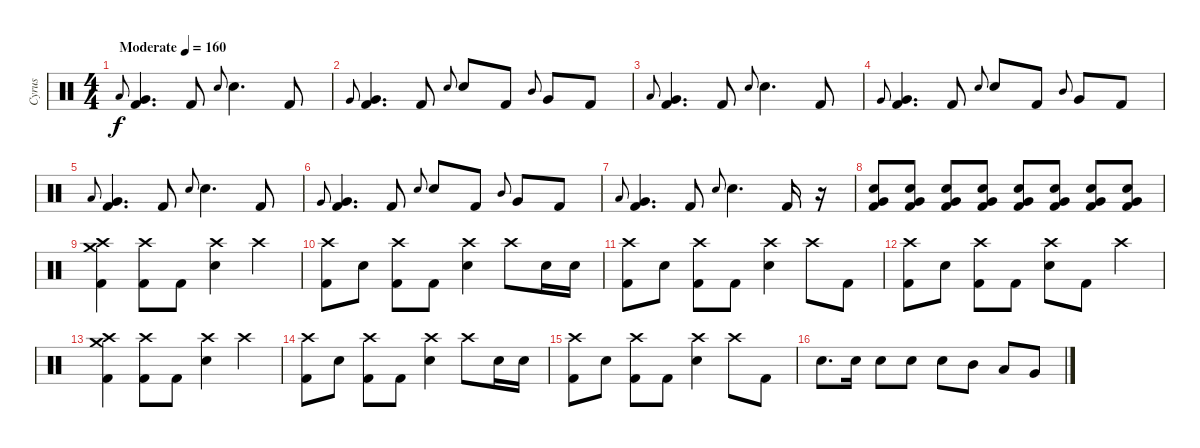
\track ("Cyrus" "Cyrus") {instrument percussion}
\staff {score}
\articulation defaults
\ts (4 4)
\tempo (160 "Moderate")
\clef neutral
\ks c "Low Tom (hit)".8{gr onbeat dy f}
("Very Low Tom (hit)" "Kick (hit) 2").4{d} "Kick (hit) 2".8 "Snare (hit) 2".8{gr onbeat} "Snare (hit) 2".4{d} "Kick (hit) 2".8 |
"Very Low Tom (hit)".8{gr onbeat} ("Very Low Tom (hit)" "Kick (hit) 2").4{d} "Kick (hit) 2".8 "Snare (hit) 2".8{gr onbeat} "Snare (hit) 2".8 "Kick (hit) 2".8 "Mid Tom (hit)".8{gr onbeat} "Very Low Tom (hit)".8 "Kick (hit) 2".8 |
"Low Tom (hit)".8{gr onbeat} ("Very Low Tom (hit)" "Kick (hit) 2").4{d} "Kick (hit) 2".8 "Snare (hit) 2".8{gr onbeat} "Snare (hit) 2".4{d} "Kick (hit) 2".8 |
"Very Low Tom (hit)".8{gr onbeat} ("Very Low Tom (hit)" "Kick (hit) 2").4{d} "Kick (hit) 2".8 "Snare (hit) 2".8{gr onbeat} "Snare (hit) 2".8 "Kick (hit) 2".8 "Mid Tom (hit)".8{gr onbeat} "Very Low Tom (hit)".8 "Kick (hit) 2".8 |
"Low Tom (hit)".8{gr onbeat} ("Very Low Tom (hit)" "Kick (hit) 2").4{d} "Kick (hit) 2".8 "Snare (hit) 2".8{gr onbeat} "Snare (hit) 2".4{d} "Kick (hit) 2".8 |
"Very Low Tom (hit)".8{gr onbeat} ("Very Low Tom (hit)" "Kick (hit) 2").4{d} "Kick (hit) 2".8 "Snare (hit) 2".8{gr onbeat} "Snare (hit) 2".8 "Kick (hit) 2".8 "Mid Tom (hit)".8{gr onbeat} "Very Low Tom (hit)".8 "Kick (hit) 2".8 |
"Low Tom (hit)".8{gr onbeat} ("Very Low Tom (hit)" "Kick (hit) 2").4{d} "Kick (hit) 2".8 "Snare (hit) 2".8{gr onbeat} "Snare (hit) 2".4{d} "Kick (hit) 2".16 r.16{volume 5} |
("Snare (hit) 2" "Very Low Tom (hit)" "Kick (hit) 2").8{volume 13} ("Snare (hit) 2" "Very Low Tom (hit)" "Kick (hit) 2").8 ("Snare (hit) 2" "Very Low Tom (hit)" "Kick (hit) 2").8 ("Snare (hit) 2" "Very Low Tom (hit)" "Kick (hit) 2").8 ("Snare (hit) 2" "Very Low Tom (hit)" "Kick (hit) 2").8 ("Snare (hit) 2" "Very Low Tom (hit)" "Kick (hit) 2").8 ("Snare (hit) 2" "Very Low Tom (hit)" "Kick (hit) 2").8 ("Snare (hit) 2" "Very Low Tom (hit)" "Kick (hit) 2").8 |
("Crash high (hit)" "Crash medium (hit)" "Kick (hit) 2").4 ("Crash high (hit)" "Kick (hit) 2").8 "Kick (hit) 2".8 ("Crash high (hit)" "Snare (hit) 2").4 "Crash high (hit)".4 |
("Crash high (hit)" "Kick (hit) 2").8 "Snare (hit) 2".8 ("Crash high (hit)" "Kick (hit) 2").8 "Kick (hit) 2".8 ("Crash high (hit)" "Snare (hit) 2").4 "Crash high (hit)".8 "Snare (hit) 2".16 "Snare (hit) 2".16 |
("Crash high (hit)" "Kick (hit) 2").8 "Snare (hit) 2".8 ("Crash high (hit)" "Kick (hit) 2").8 "Kick (hit) 2".8 ("Crash high (hit)" "Snare (hit) 2").4 "Crash high (hit)".8 "Kick (hit) 2".8 |
("Crash high (hit)" "Kick (hit) 2").8 "Snare (hit) 2".8 ("Crash high (hit)" "Kick (hit) 2").8 "Kick (hit) 2".8 ("Crash high (hit)" "Snare (hit) 2").8 "Kick (hit) 2".8 "Crash high (hit)".4 |
("Crash high (hit)" "Crash medium (hit)" "Kick (hit) 2").4 ("Crash high (hit)" "Kick (hit) 2").8 "Kick (hit) 2".8 ("Crash high (hit)" "Snare (hit) 2").4 "Crash high (hit)".4 |
("Crash high (hit)" "Kick (hit) 2").8 "Snare (hit) 2".8 ("Crash high (hit)" "Kick (hit) 2").8 "Kick (hit) 2".8 ("Crash high (hit)" "Snare (hit) 2").4 "Crash high (hit)".8 "Snare (hit) 2".16 "Snare (hit) 2".16 |
("Crash high (hit)" "Kick (hit) 2").8 "Snare (hit) 2".8 ("Crash high (hit)" "Kick (hit) 2").8 "Kick (hit) 2".8 ("Crash high (hit)" "Snare (hit) 2").4 "Crash high (hit)".8 "Kick (hit) 2".8 |
"Snare (hit) 2".8{d} "Snare (hit) 2".16 "Snare (hit) 2".8 "Snare (hit) 2".8 "Snare (hit) 2".8 "Mid Tom (hit)".8 "Low Tom (hit)".8 "Very Low Tom (hit)".8
